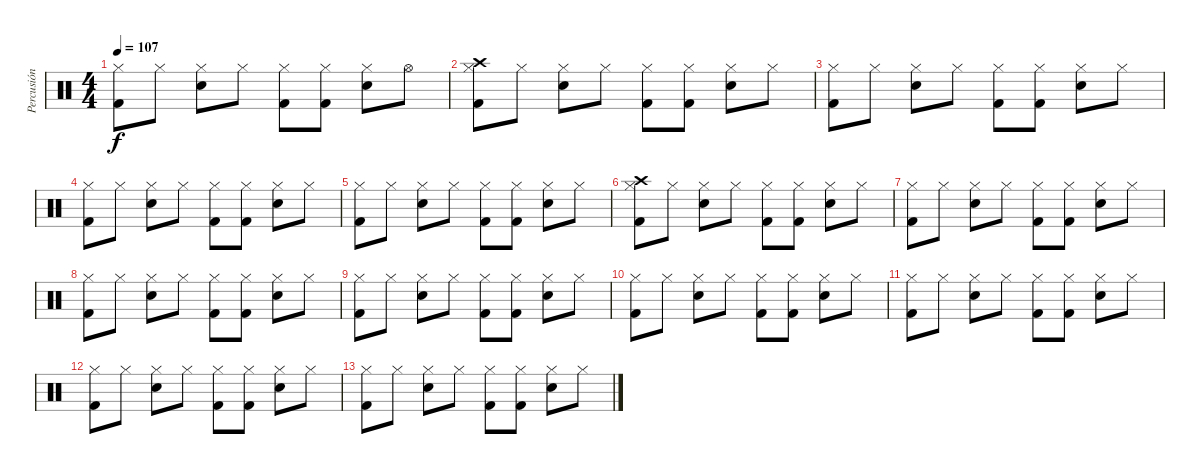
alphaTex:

\track ("Percusión" "Percusión") {instrument percussion}
\staff {score}
\articulation defaults
\ts (4 4)
\tempo 107
\clef neutral
\ks c
("Hi-Hat (closed)" "Kick (hit) 2").8{dy f} "Hi-Hat (closed)".8 ("Hi-Hat (closed)" "Snare (hit) 2").8 "Hi-Hat (closed)".8 ("Hi-Hat (closed)" "Kick (hit) 2").8 ("Hi-Hat (closed)" "Kick (hit) 2").8 ("Hi-Hat (closed)" "Snare (hit) 2").8 "Hi-Hat (open)".8 |
("Hi-Hat (closed)" "Kick (hit) 2" "Crash high (hit)").8{volume 5} "Hi-Hat (closed)".8 ("Hi-Hat (closed)" "Snare (hit) 2").8 "Hi-Hat (closed)".8 ("Hi-Hat (closed)" "Kick (hit) 2").8 ("Hi-Hat (closed)" "Kick (hit) 2").8 ("Hi-Hat (closed)" "Snare (hit) 2").8 "Hi-Hat (closed)".8 |
("Hi-Hat (closed)" "Kick (hit) 2").8 "Hi-Hat (closed)".8 ("Hi-Hat (closed)" "Snare (hit) 2").8 "Hi-Hat (closed)".8 ("Hi-Hat (closed)" "Kick (hit) 2").8 ("Hi-Hat (closed)" "Kick (hit) 2").8 ("Hi-Hat (closed)" "Snare (hit) 2").8 "Hi-Hat (closed)".8 |
("Hi-Hat (closed)" "Kick (hit) 2").8 "Hi-Hat (closed)".8 ("Hi-Hat (closed)" "Snare (hit) 2").8 "Hi-Hat (closed)".8 ("Hi-Hat (closed)" "Kick (hit) 2").8 ("Hi-Hat (closed)" "Kick (hit) 2").8 ("Hi-Hat (closed)" "Snare (hit) 2").8 "Hi-Hat (closed)".8 |
("Hi-Hat (closed)" "Kick (hit) 2").8 "Hi-Hat (closed)".8 ("Hi-Hat (closed)" "Snare (hit) 2").8 "Hi-Hat (closed)".8 ("Hi-Hat (closed)" "Kick (hit) 2").8 ("Hi-Hat (closed)" "Kick (hit) 2").8 ("Hi-Hat (closed)" "Snare (hit) 2").8 "Hi-Hat (closed)".8 |
("Hi-Hat (closed)" "Kick (hit) 2" "Crash high (hit)").8{volume 3} "Hi-Hat (closed)".8 ("Hi-Hat (closed)" "Snare (hit) 2").8 "Hi-Hat (closed)".8 ("Hi-Hat (closed)" "Kick (hit) 2").8 ("Hi-Hat (closed)" "Kick (hit) 2").8 ("Hi-Hat (closed)" "Snare (hit) 2").8 "Hi-Hat (closed)".8 |
("Hi-Hat (closed)" "Kick (hit) 2").8 "Hi-Hat (closed)".8 ("Hi-Hat (closed)" "Snare (hit) 2").8 "Hi-Hat (closed)".8 ("Hi-Hat (closed)" "Kick (hit) 2").8 ("Hi-Hat (closed)" "Kick (hit) 2").8 ("Hi-Hat (closed)" "Snare (hit) 2").8 "Hi-Hat (closed)".8 |
("Hi-Hat (closed)" "Kick (hit) 2").8 "Hi-Hat (closed)".8 ("Hi-Hat (closed)" "Snare (hit) 2").8 "Hi-Hat (closed)".8 ("Hi-Hat (closed)" "Kick (hit) 2").8 ("Hi-Hat (closed)" "Kick (hit) 2").8 ("Hi-Hat (closed)" "Snare (hit) 2").8 "Hi-Hat (closed)".8 |
("Hi-Hat (closed)" "Kick (hit) 2").8 "Hi-Hat (closed)".8 ("Hi-Hat (closed)" "Snare (hit) 2").8 "Hi-Hat (closed)".8 ("Hi-Hat (closed)" "Kick (hit) 2").8 ("Hi-Hat (closed)" "Kick (hit) 2").8 ("Hi-Hat (closed)" "Snare (hit) 2").8 "Hi-Hat (closed)".8 |
("Hi-Hat (closed)" "Kick (hit) 2").8{volume 0} "Hi-Hat (closed)".8 ("Hi-Hat (closed)" "Snare (hit) 2").8 "Hi-Hat (closed)".8 ("Hi-Hat (closed)" "Kick (hit) 2").8 ("Hi-Hat (closed)" "Kick (hit) 2").8 ("Hi-Hat (closed)" "Snare (hit) 2").8 "Hi-Hat (closed)".8 |
("Hi-Hat (closed)" "Kick (hit) 2").8 "Hi-Hat (closed)".8 ("Hi-Hat (closed)" "Snare (hit) 2").8 "Hi-Hat (closed)".8 ("Hi-Hat (closed)" "Kick (hit) 2").8 ("Hi-Hat (closed)" "Kick (hit) 2").8 ("Hi-Hat (closed)" "Snare (hit) 2").8 "Hi-Hat (closed)".8 |
("Hi-Hat (closed)" "Kick (hit) 2").8 "Hi-Hat (closed)".8 ("Hi-Hat (closed)" "Snare (hit) 2").8 "Hi-Hat (closed)".8 ("Hi-Hat (closed)" "Kick (hit) 2").8 ("Hi-Hat (closed)" "Kick (hit) 2").8 ("Hi-Hat (closed)" "Snare (hit) 2").8 "Hi-Hat (closed)".8 |
("Hi-Hat (closed)" "Kick (hit) 2").8 "Hi-Hat (closed)".8 ("Hi-Hat (closed)" "Snare (hit) 2").8 "Hi-Hat (closed)".8 ("Hi-Hat (closed)" "Kick (hit) 2").8 ("Hi-Hat (closed)" "Kick (hit) 2").8 ("Hi-Hat (closed)" "Snare (hit) 2").8 "Hi-Hat (closed)".8
